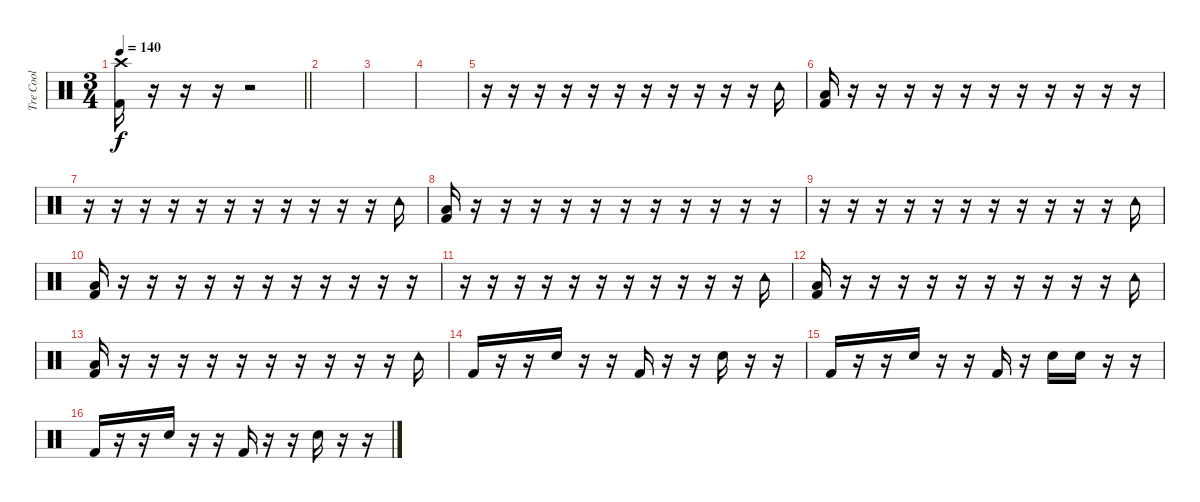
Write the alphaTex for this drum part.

\track ("Tre Cool" "Tre Cool") {instrument percussion}
\staff {score}
\articulation defaults
\ts (3 4)
\tempo 140
\clef neutral
\barLineRight lightlight
\ks c
("Crash high (hit)" "Kick (hit) 2").16{dy f} r.16 r.16 r.16 r.2 |
|
|
|
r.16 r.16 r.16 r.16 r.16 r.16 r.16 r.16 r.16 r.16 r.16 "Tambourine (hit)".16 |
("Low Floor Tom (hit)" "Kick (hit) 2").16 r.16 r.16 r.16 r.16 r.16 r.16 r.16 r.16 r.16 r.16 r.16 |
r.16 r.16 r.16 r.16 r.16 r.16 r.16 r.16 r.16 r.16 r.16 "Tambourine (hit)".16 |
("Low Floor Tom (hit)" "Kick (hit) 2").16 r.16 r.16 r.16 r.16 r.16 r.16 r.16 r.16 r.16 r.16 r.16 |
r.16 r.16 r.16 r.16 r.16 r.16 r.16 r.16 r.16 r.16 r.16 "Tambourine (hit)".16 |
("Low Floor Tom (hit)" "Kick (hit) 2").16 r.16 r.16 r.16 r.16 r.16 r.16 r.16 r.16 r.16 r.16 r.16 |
r.16 r.16 r.16 r.16 r.16 r.16 r.16 r.16 r.16 r.16 r.16 "Tambourine (hit)".16 |
("Low Floor Tom (hit)" "Kick (hit) 2").16 r.16 r.16 r.16 r.16 r.16 r.16 r.16 r.16 r.16 r.16 "Tambourine (hit)".16 |
("Low Floor Tom (hit)" "Kick (hit) 2").16 r.16 r.16 r.16 r.16 r.16 r.16 r.16 r.16 r.16 r.16 "Tambourine (hit)".16 |
"Kick (hit) 2".16 r.16 r.16 "Snare (hit) 2".16 r.16 r.16 "Kick (hit) 2".16 r.16 r.16 "Snare (hit) 2".16 r.16 r.16 |
"Kick (hit) 2".16 r.16 r.16 "Snare (hit) 2".16 r.16 r.16 "Kick (hit) 2".16 r.16 "Snare (hit) 2".16 "Snare (hit) 2".16 r.16 r.16 |
"Kick (hit) 2".16 r.16 r.16 "Snare (hit) 2".16 r.16 r.16 "Kick (hit) 2".16 r.16 r.16 "Snare (hit) 2".16 r.16 r.16
